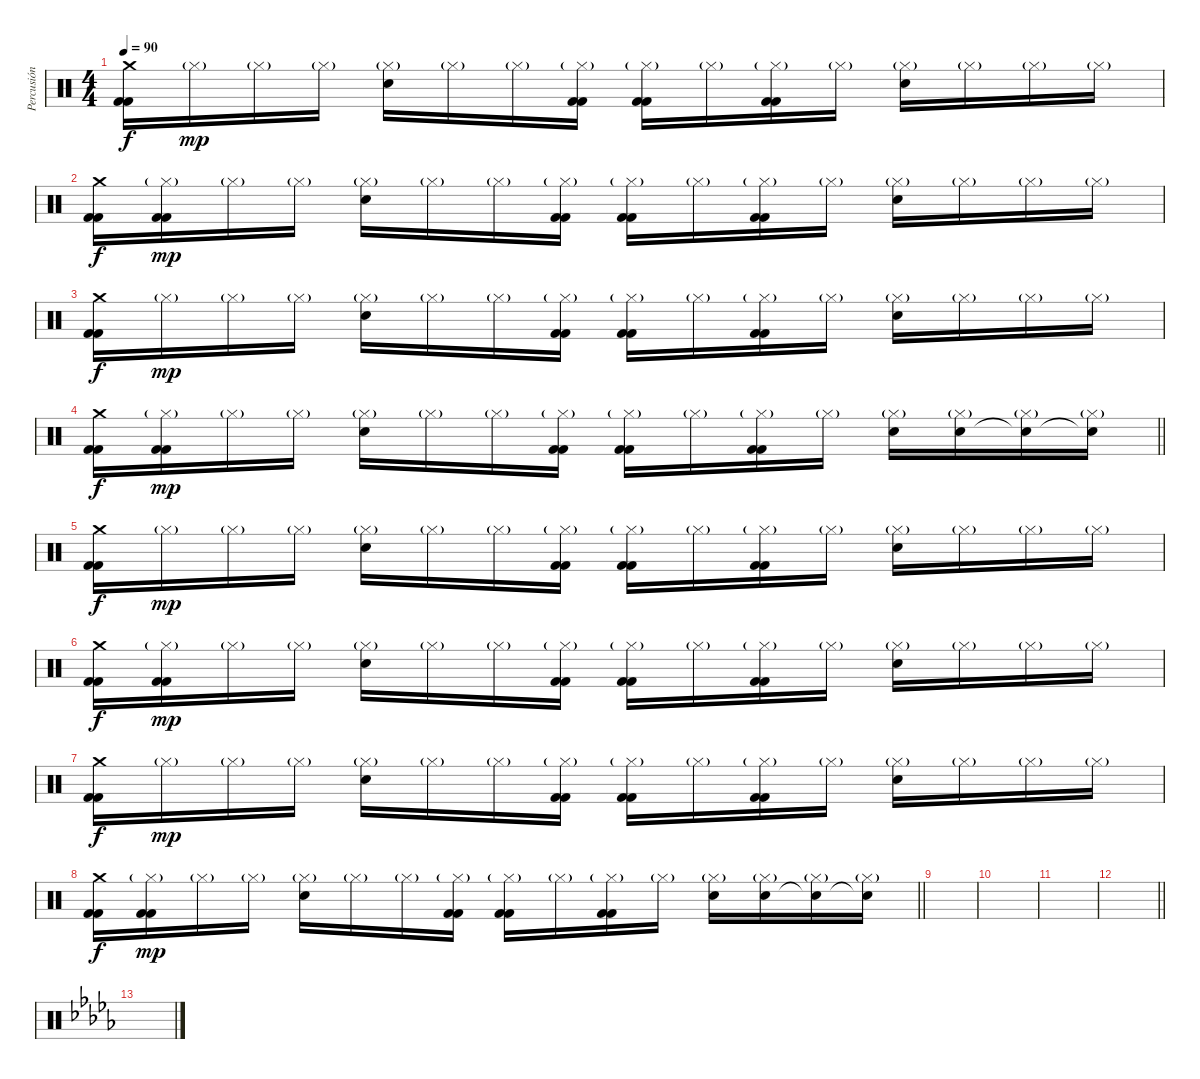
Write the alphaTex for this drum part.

\track ("Percusión" "Percusión") {instrument percussion}
\staff {score}
\articulation defaults
\ts (4 4)
\tempo 90
\clef neutral
\ks c
("Crash medium (hit)" "Kick (hit) 2" "Kick (hit) 2").16{dy f} "Hi-Hat (closed)"{g}.16{dy mp} "Hi-Hat (closed)"{g}.16 "Hi-Hat (closed)"{g}.16 ("Hi-Hat (closed)"{g} "Electric Snare (hit)").16 "Hi-Hat (closed)"{g}.16 "Hi-Hat (closed)"{g}.16 ("Hi-Hat (closed)"{g} "Kick (hit) 2" "Kick (hit) 2").16 ("Hi-Hat (closed)"{g} "Kick (hit) 2" "Kick (hit) 2").16 "Hi-Hat (closed)"{g}.16 ("Hi-Hat (closed)"{g} "Kick (hit) 2" "Kick (hit) 2").16 "Hi-Hat (closed)"{g}.16 ("Hi-Hat (closed)"{g} "Electric Snare (hit)").16 "Hi-Hat (closed)"{g}.16 "Hi-Hat (closed)"{g}.16 "Hi-Hat (closed)"{g}.16 |
("Crash medium (hit)" "Kick (hit) 2" "Kick (hit) 2").16{dy f} ("Hi-Hat (closed)"{g} "Kick (hit) 2" "Kick (hit) 2").16{dy mp} "Hi-Hat (closed)"{g}.16 "Hi-Hat (closed)"{g}.16 ("Hi-Hat (closed)"{g} "Electric Snare (hit)").16 "Hi-Hat (closed)"{g}.16 "Hi-Hat (closed)"{g}.16 ("Hi-Hat (closed)"{g} "Kick (hit) 2" "Kick (hit) 2").16 ("Hi-Hat (closed)"{g} "Kick (hit) 2" "Kick (hit) 2").16 "Hi-Hat (closed)"{g}.16 ("Hi-Hat (closed)"{g} "Kick (hit) 2" "Kick (hit) 2").16 "Hi-Hat (closed)"{g}.16 ("Hi-Hat (closed)"{g} "Electric Snare (hit)").16 "Hi-Hat (closed)"{g}.16 "Hi-Hat (closed)"{g}.16 "Hi-Hat (closed)"{g}.16 |
("Crash medium (hit)" "Kick (hit) 2" "Kick (hit) 2").16{dy f} "Hi-Hat (closed)"{g}.16{dy mp} "Hi-Hat (closed)"{g}.16 "Hi-Hat (closed)"{g}.16 ("Hi-Hat (closed)"{g} "Electric Snare (hit)").16 "Hi-Hat (closed)"{g}.16 "Hi-Hat (closed)"{g}.16 ("Hi-Hat (closed)"{g} "Kick (hit) 2" "Kick (hit) 2").16 ("Hi-Hat (closed)"{g} "Kick (hit) 2" "Kick (hit) 2").16 "Hi-Hat (closed)"{g}.16 ("Hi-Hat (closed)"{g} "Kick (hit) 2" "Kick (hit) 2").16 "Hi-Hat (closed)"{g}.16 ("Hi-Hat (closed)"{g} "Electric Snare (hit)").16 "Hi-Hat (closed)"{g}.16 "Hi-Hat (closed)"{g}.16 "Hi-Hat (closed)"{g}.16 |
\barLineRight lightlight
("Crash medium (hit)" "Kick (hit) 2" "Kick (hit) 2").16{dy f} ("Hi-Hat (closed)"{g} "Kick (hit) 2" "Kick (hit) 2").16{dy mp} "Hi-Hat (closed)"{g}.16 "Hi-Hat (closed)"{g}.16 ("Hi-Hat (closed)"{g} "Electric Snare (hit)").16 "Hi-Hat (closed)"{g}.16 "Hi-Hat (closed)"{g}.16 ("Hi-Hat (closed)"{g} "Kick (hit) 2" "Kick (hit) 2").16 ("Hi-Hat (closed)"{g} "Kick (hit) 2" "Kick (hit) 2").16 "Hi-Hat (closed)"{g}.16 ("Hi-Hat (closed)"{g} "Kick (hit) 2" "Kick (hit) 2").16 "Hi-Hat (closed)"{g}.16 ("Hi-Hat (closed)"{g} "Electric Snare (hit)").16 ("Hi-Hat (closed)"{g} "Electric Snare (hit)").16 ("Hi-Hat (closed)"{g} "Electric Snare (hit)"{t}).16 ("Hi-Hat (closed)"{g} "Electric Snare (hit)"{t}).16 |
("Crash medium (hit)" "Kick (hit) 2" "Kick (hit) 2").16{dy f} "Hi-Hat (closed)"{g}.16{dy mp} "Hi-Hat (closed)"{g}.16 "Hi-Hat (closed)"{g}.16 ("Hi-Hat (closed)"{g} "Electric Snare (hit)").16 "Hi-Hat (closed)"{g}.16 "Hi-Hat (closed)"{g}.16 ("Hi-Hat (closed)"{g} "Kick (hit) 2" "Kick (hit) 2").16 ("Hi-Hat (closed)"{g} "Kick (hit) 2" "Kick (hit) 2").16 "Hi-Hat (closed)"{g}.16 ("Hi-Hat (closed)"{g} "Kick (hit) 2" "Kick (hit) 2").16 "Hi-Hat (closed)"{g}.16 ("Hi-Hat (closed)"{g} "Electric Snare (hit)").16 "Hi-Hat (closed)"{g}.16 "Hi-Hat (closed)"{g}.16 "Hi-Hat (closed)"{g}.16 |
("Crash medium (hit)" "Kick (hit) 2" "Kick (hit) 2").16{dy f} ("Hi-Hat (closed)"{g} "Kick (hit) 2" "Kick (hit) 2").16{dy mp} "Hi-Hat (closed)"{g}.16 "Hi-Hat (closed)"{g}.16 ("Hi-Hat (closed)"{g} "Electric Snare (hit)").16 "Hi-Hat (closed)"{g}.16 "Hi-Hat (closed)"{g}.16 ("Hi-Hat (closed)"{g} "Kick (hit) 2" "Kick (hit) 2").16 ("Hi-Hat (closed)"{g} "Kick (hit) 2" "Kick (hit) 2").16 "Hi-Hat (closed)"{g}.16 ("Hi-Hat (closed)"{g} "Kick (hit) 2" "Kick (hit) 2").16 "Hi-Hat (closed)"{g}.16 ("Hi-Hat (closed)"{g} "Electric Snare (hit)").16 "Hi-Hat (closed)"{g}.16 "Hi-Hat (closed)"{g}.16 "Hi-Hat (closed)"{g}.16 |
("Crash medium (hit)" "Kick (hit) 2" "Kick (hit) 2").16{dy f} "Hi-Hat (closed)"{g}.16{dy mp} "Hi-Hat (closed)"{g}.16 "Hi-Hat (closed)"{g}.16 ("Hi-Hat (closed)"{g} "Electric Snare (hit)").16 "Hi-Hat (closed)"{g}.16 "Hi-Hat (closed)"{g}.16 ("Hi-Hat (closed)"{g} "Kick (hit) 2" "Kick (hit) 2").16 ("Hi-Hat (closed)"{g} "Kick (hit) 2" "Kick (hit) 2").16 "Hi-Hat (closed)"{g}.16 ("Hi-Hat (closed)"{g} "Kick (hit) 2" "Kick (hit) 2").16 "Hi-Hat (closed)"{g}.16 ("Hi-Hat (closed)"{g} "Electric Snare (hit)").16 "Hi-Hat (closed)"{g}.16 "Hi-Hat (closed)"{g}.16 "Hi-Hat (closed)"{g}.16 |
\barLineRight lightlight
("Crash medium (hit)" "Kick (hit) 2" "Kick (hit) 2").16{dy f} ("Hi-Hat (closed)"{g} "Kick (hit) 2" "Kick (hit) 2").16{dy mp} "Hi-Hat (closed)"{g}.16 "Hi-Hat (closed)"{g}.16 ("Hi-Hat (closed)"{g} "Electric Snare (hit)").16 "Hi-Hat (closed)"{g}.16 "Hi-Hat (closed)"{g}.16 ("Hi-Hat (closed)"{g} "Kick (hit) 2" "Kick (hit) 2").16 ("Hi-Hat (closed)"{g} "Kick (hit) 2" "Kick (hit) 2").16 "Hi-Hat (closed)"{g}.16 ("Hi-Hat (closed)"{g} "Kick (hit) 2" "Kick (hit) 2").16 "Hi-Hat (closed)"{g}.16 ("Hi-Hat (closed)"{g} "Electric Snare (hit)").16 ("Hi-Hat (closed)"{g} "Electric Snare (hit)").16 ("Hi-Hat (closed)"{g} "Electric Snare (hit)"{t}).16 ("Hi-Hat (closed)"{g} "Electric Snare (hit)"{t}).16 |
|
|
|
\barLineRight lightlight
|
\ks db
